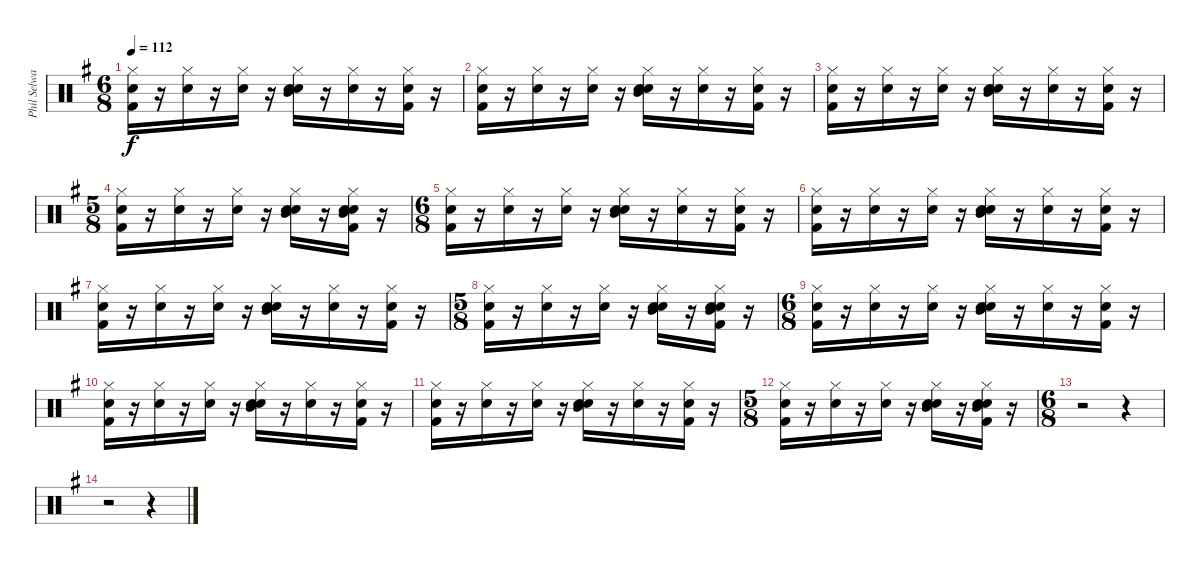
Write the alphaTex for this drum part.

\track ("Phil Selway" "Phil Selwa") {instrument percussion}
\staff {score}
\articulation defaults
\ts (6 8)
\tempo 112
\clef neutral
\ks g
("Hi-Hat (closed)" "Kick (hit) 2" "Snare (hit) 2").16{dy f} r.16 ("Hi-Hat (closed)" "Snare (hit) 2").16 r.16 ("Hi-Hat (closed)" "Snare (hit) 2").16 r.16 ("Hi-Hat (closed)" "Snare (hit) 2" "Mid Tom (hit)" "Electric Snare (hit)").16 r.16 ("Hi-Hat (closed)" "Snare (hit) 2").16 r.16 ("Hi-Hat (closed)" "Snare (hit) 2" "Kick (hit) 2").16 r.16 |
("Hi-Hat (closed)" "Kick (hit) 2" "Snare (hit) 2").16 r.16 ("Hi-Hat (closed)" "Snare (hit) 2").16 r.16 ("Hi-Hat (closed)" "Snare (hit) 2").16 r.16 ("Hi-Hat (closed)" "Snare (hit) 2" "Mid Tom (hit)" "Electric Snare (hit)").16 r.16 ("Hi-Hat (closed)" "Snare (hit) 2").16 r.16 ("Hi-Hat (closed)" "Snare (hit) 2" "Kick (hit) 2").16 r.16 |
("Hi-Hat (closed)" "Kick (hit) 2" "Snare (hit) 2").16 r.16 ("Hi-Hat (closed)" "Snare (hit) 2").16 r.16 ("Hi-Hat (closed)" "Snare (hit) 2").16 r.16 ("Hi-Hat (closed)" "Snare (hit) 2" "Mid Tom (hit)" "Electric Snare (hit)").16 r.16 ("Hi-Hat (closed)" "Snare (hit) 2").16 r.16 ("Hi-Hat (closed)" "Snare (hit) 2" "Kick (hit) 2").16 r.16 |
\ts (5 8)
("Hi-Hat (closed)" "Snare (hit) 2" "Kick (hit) 2").16 r.16 ("Hi-Hat (closed)" "Snare (hit) 2").16 r.16 ("Hi-Hat (closed)" "Snare (hit) 2").16 r.16 ("Hi-Hat (closed)" "Snare (hit) 2" "Mid Tom (hit)" "Electric Snare (hit)").16 r.16 ("Hi-Hat (closed)" "Snare (hit) 2" "Kick (hit) 2" "Mid Tom (hit)" "Electric Snare (hit)").16 r.16 |
\ts (6 8)
("Hi-Hat (closed)" "Kick (hit) 2" "Snare (hit) 2").16 r.16 ("Hi-Hat (closed)" "Snare (hit) 2").16 r.16 ("Hi-Hat (closed)" "Snare (hit) 2").16 r.16 ("Hi-Hat (closed)" "Snare (hit) 2" "Mid Tom (hit)" "Electric Snare (hit)").16 r.16 ("Hi-Hat (closed)" "Snare (hit) 2").16 r.16 ("Hi-Hat (closed)" "Snare (hit) 2" "Kick (hit) 2").16 r.16 |
("Hi-Hat (closed)" "Kick (hit) 2" "Snare (hit) 2").16 r.16 ("Hi-Hat (closed)" "Snare (hit) 2").16 r.16 ("Hi-Hat (closed)" "Snare (hit) 2").16 r.16 ("Hi-Hat (closed)" "Snare (hit) 2" "Mid Tom (hit)" "Electric Snare (hit)").16 r.16 ("Hi-Hat (closed)" "Snare (hit) 2").16 r.16 ("Hi-Hat (closed)" "Snare (hit) 2" "Kick (hit) 2").16 r.16 |
("Hi-Hat (closed)" "Kick (hit) 2" "Snare (hit) 2").16 r.16 ("Hi-Hat (closed)" "Snare (hit) 2").16 r.16 ("Hi-Hat (closed)" "Snare (hit) 2").16 r.16 ("Hi-Hat (closed)" "Snare (hit) 2" "Mid Tom (hit)" "Electric Snare (hit)").16 r.16 ("Hi-Hat (closed)" "Snare (hit) 2").16 r.16 ("Hi-Hat (closed)" "Snare (hit) 2" "Kick (hit) 2").16 r.16 |
\ts (5 8)
("Hi-Hat (closed)" "Snare (hit) 2" "Kick (hit) 2").16 r.16 ("Hi-Hat (closed)" "Snare (hit) 2").16 r.16 ("Hi-Hat (closed)" "Snare (hit) 2").16 r.16 ("Hi-Hat (closed)" "Snare (hit) 2" "Mid Tom (hit)" "Electric Snare (hit)").16 r.16 ("Hi-Hat (closed)" "Snare (hit) 2" "Kick (hit) 2" "Mid Tom (hit)" "Electric Snare (hit)").16 r.16 |
\ts (6 8)
("Hi-Hat (closed)" "Kick (hit) 2" "Snare (hit) 2").16 r.16 ("Hi-Hat (closed)" "Snare (hit) 2").16 r.16 ("Hi-Hat (closed)" "Snare (hit) 2").16 r.16 ("Hi-Hat (closed)" "Snare (hit) 2" "Mid Tom (hit)" "Electric Snare (hit)").16 r.16 ("Hi-Hat (closed)" "Snare (hit) 2").16 r.16 ("Hi-Hat (closed)" "Snare (hit) 2" "Kick (hit) 2").16 r.16 |
("Hi-Hat (closed)" "Kick (hit) 2" "Snare (hit) 2").16 r.16 ("Hi-Hat (closed)" "Snare (hit) 2").16 r.16 ("Hi-Hat (closed)" "Snare (hit) 2").16 r.16 ("Hi-Hat (closed)" "Snare (hit) 2" "Mid Tom (hit)" "Electric Snare (hit)").16 r.16 ("Hi-Hat (closed)" "Snare (hit) 2").16 r.16 ("Hi-Hat (closed)" "Snare (hit) 2" "Kick (hit) 2").16 r.16 |
("Hi-Hat (closed)" "Kick (hit) 2" "Snare (hit) 2").16 r.16 ("Hi-Hat (closed)" "Snare (hit) 2").16 r.16 ("Hi-Hat (closed)" "Snare (hit) 2").16 r.16 ("Hi-Hat (closed)" "Snare (hit) 2" "Mid Tom (hit)" "Electric Snare (hit)").16 r.16 ("Hi-Hat (closed)" "Snare (hit) 2").16 r.16 ("Hi-Hat (closed)" "Snare (hit) 2" "Kick (hit) 2").16 r.16 |
\ts (5 8)
("Hi-Hat (closed)" "Snare (hit) 2" "Kick (hit) 2").16 r.16 ("Hi-Hat (closed)" "Snare (hit) 2").16 r.16 ("Hi-Hat (closed)" "Snare (hit) 2").16 r.16 ("Hi-Hat (closed)" "Snare (hit) 2" "Mid Tom (hit)" "Electric Snare (hit)").16 r.16 ("Hi-Hat (closed)" "Snare (hit) 2" "Kick (hit) 2" "Mid Tom (hit)" "Electric Snare (hit)").16 r.16 |
\ts (6 8)
r.2 r.4 |
r.2 r.4
